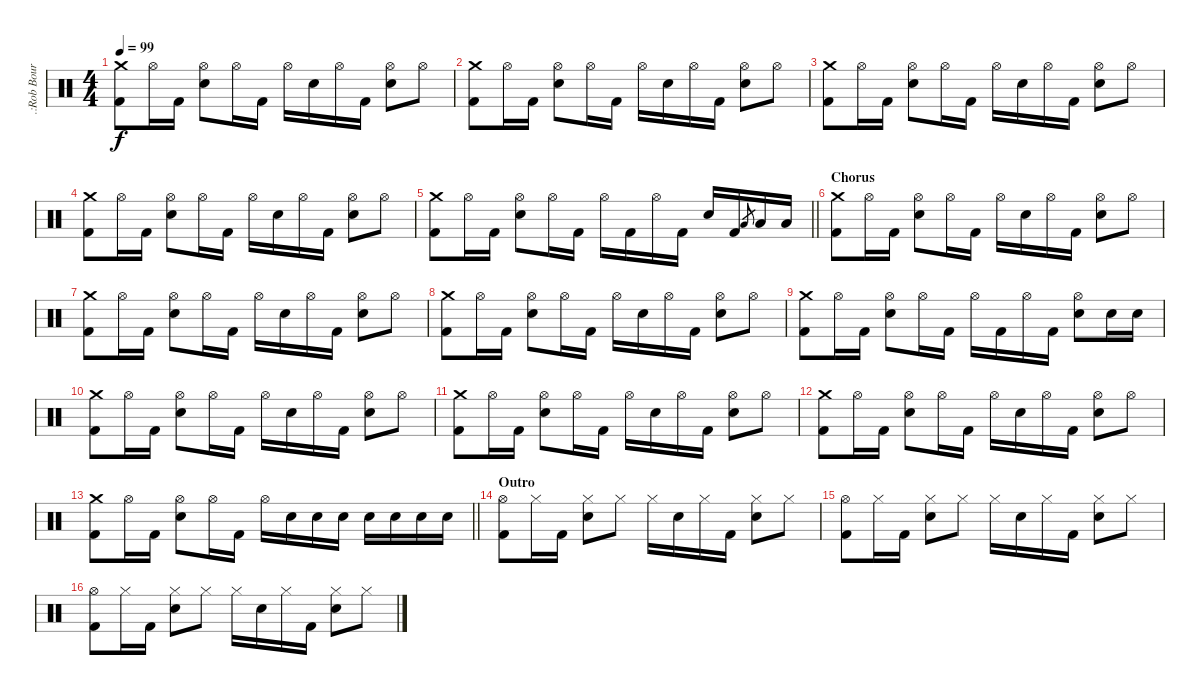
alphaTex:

\track (".:Rob Bourdon - Drums:." ".:Rob Bour") {instrument percussion}
\staff {score}
\articulation defaults
\ts (4 4)
\tempo 99
\clef neutral
\ks c
("Crash medium (hit)" "Kick (hit) 2").8{dy f} "Hi-Hat (open)".16 "Kick (hit) 2".16 ("Hi-Hat (open)" "Electric Snare (hit)").8 "Hi-Hat (open)".16 "Kick (hit) 2".16 "Hi-Hat (open)".16 "Electric Snare (hit)".16 "Hi-Hat (open)".16 "Kick (hit) 2".16 ("Hi-Hat (open)" "Electric Snare (hit)").8 "Hi-Hat (open)".8 |
("Crash medium (hit)" "Kick (hit) 2").8 "Hi-Hat (open)".16 "Kick (hit) 2".16 ("Hi-Hat (open)" "Electric Snare (hit)").8 "Hi-Hat (open)".16 "Kick (hit) 2".16 "Hi-Hat (open)".16 "Electric Snare (hit)".16 "Hi-Hat (open)".16 "Kick (hit) 2".16 ("Hi-Hat (open)" "Electric Snare (hit)").8 "Hi-Hat (open)".8 |
("Crash medium (hit)" "Kick (hit) 2").8 "Hi-Hat (open)".16 "Kick (hit) 2".16 ("Hi-Hat (open)" "Electric Snare (hit)").8 "Hi-Hat (open)".16 "Kick (hit) 2".16 "Hi-Hat (open)".16 "Electric Snare (hit)".16 "Hi-Hat (open)".16 "Kick (hit) 2".16 ("Hi-Hat (open)" "Electric Snare (hit)").8 "Hi-Hat (open)".8 |
("Crash medium (hit)" "Kick (hit) 2").8 "Hi-Hat (open)".16 "Kick (hit) 2".16 ("Hi-Hat (open)" "Electric Snare (hit)").8 "Hi-Hat (open)".16 "Kick (hit) 2".16 "Hi-Hat (open)".16 "Electric Snare (hit)".16 "Hi-Hat (open)".16 "Kick (hit) 2".16 ("Hi-Hat (open)" "Electric Snare (hit)").8 "Hi-Hat (open)".8 |
\barLineRight lightlight
("Crash medium (hit)" "Kick (hit) 2").8 "Hi-Hat (open)".16 "Kick (hit) 2".16 ("Hi-Hat (open)" "Electric Snare (hit)").8 "Hi-Hat (open)".16 "Kick (hit) 2".16 "Hi-Hat (open)".16 "Kick (hit) 2".16 "Hi-Hat (open)".16 "Kick (hit) 2".16 "Electric Snare (hit)".16 "Kick (hit) 2".16 "Low Floor Tom (hit)".8{gr} "Low Floor Tom (hit)".16 "Low Floor Tom (hit)".16 |
\section ("" "Chorus")
("Crash medium (hit)" "Kick (hit) 2").8 "Hi-Hat (open)".16 "Kick (hit) 2".16 ("Hi-Hat (open)" "Electric Snare (hit)").8 "Hi-Hat (open)".16 "Kick (hit) 2".16 "Hi-Hat (open)".16 "Electric Snare (hit)".16 "Hi-Hat (open)".16 "Kick (hit) 2".16 ("Hi-Hat (open)" "Electric Snare (hit)").8 "Hi-Hat (open)".8 |
("Crash medium (hit)" "Kick (hit) 2").8 "Hi-Hat (open)".16 "Kick (hit) 2".16 ("Hi-Hat (open)" "Electric Snare (hit)").8 "Hi-Hat (open)".16 "Kick (hit) 2".16 "Hi-Hat (open)".16 "Electric Snare (hit)".16 "Hi-Hat (open)".16 "Kick (hit) 2".16 ("Hi-Hat (open)" "Electric Snare (hit)").8 "Hi-Hat (open)".8 |
("Crash medium (hit)" "Kick (hit) 2").8 "Hi-Hat (open)".16 "Kick (hit) 2".16 ("Hi-Hat (open)" "Electric Snare (hit)").8 "Hi-Hat (open)".16 "Kick (hit) 2".16 "Hi-Hat (open)".16 "Electric Snare (hit)".16 "Hi-Hat (open)".16 "Kick (hit) 2".16 ("Hi-Hat (open)" "Electric Snare (hit)").8 "Hi-Hat (open)".8 |
("Crash medium (hit)" "Kick (hit) 2").8 "Hi-Hat (open)".16 "Kick (hit) 2".16 ("Hi-Hat (open)" "Electric Snare (hit)").8 "Hi-Hat (open)".16 "Kick (hit) 2".16 "Hi-Hat (open)".16 "Kick (hit) 2".16 "Hi-Hat (open)".16 "Kick (hit) 2".16 ("Hi-Hat (open)" "Electric Snare (hit)").8 "Electric Snare (hit)".16 "Electric Snare (hit)".16 |
("Crash medium (hit)" "Kick (hit) 2").8 "Hi-Hat (open)".16 "Kick (hit) 2".16 ("Hi-Hat (open)" "Electric Snare (hit)").8 "Hi-Hat (open)".16 "Kick (hit) 2".16 "Hi-Hat (open)".16 "Electric Snare (hit)".16 "Hi-Hat (open)".16 "Kick (hit) 2".16 ("Hi-Hat (open)" "Electric Snare (hit)").8 "Hi-Hat (open)".8 |
("Crash medium (hit)" "Kick (hit) 2").8 "Hi-Hat (open)".16 "Kick (hit) 2".16 ("Hi-Hat (open)" "Electric Snare (hit)").8 "Hi-Hat (open)".16 "Kick (hit) 2".16 "Hi-Hat (open)".16 "Electric Snare (hit)".16 "Hi-Hat (open)".16 "Kick (hit) 2".16 ("Hi-Hat (open)" "Electric Snare (hit)").8 "Hi-Hat (open)".8 |
("Crash medium (hit)" "Kick (hit) 2").8 "Hi-Hat (open)".16 "Kick (hit) 2".16 ("Hi-Hat (open)" "Electric Snare (hit)").8 "Hi-Hat (open)".16 "Kick (hit) 2".16 "Hi-Hat (open)".16 "Electric Snare (hit)".16 "Hi-Hat (open)".16 "Kick (hit) 2".16 ("Hi-Hat (open)" "Electric Snare (hit)").8 "Hi-Hat (open)".8 |
\barLineRight lightlight
("Crash medium (hit)" "Kick (hit) 2").8 "Hi-Hat (open)".16 "Kick (hit) 2".16 ("Hi-Hat (open)" "Electric Snare (hit)").8 "Hi-Hat (open)".16 "Kick (hit) 2".16 "Hi-Hat (open)".16 "Electric Snare (hit)".16 "Electric Snare (hit)".16 "Electric Snare (hit)".16 "Electric Snare (hit)".16 "Electric Snare (hit)".16 "Electric Snare (hit)".16 "Electric Snare (hit)".16 |
\section ("" "Outro")
("Hi-Hat (open)" "Kick (hit) 2").8{volume 0} "Hi-Hat (closed)".16 "Kick (hit) 2".16 ("Hi-Hat (closed)" "Electric Snare (hit)").8 "Hi-Hat (closed)".8 "Hi-Hat (closed)".16 "Electric Snare (hit)".16 "Hi-Hat (closed)".16 "Kick (hit) 2".16 ("Hi-Hat (closed)" "Electric Snare (hit)").8 "Hi-Hat (closed)".8 |
("Hi-Hat (open)" "Kick (hit) 2").8 "Hi-Hat (closed)".16 "Kick (hit) 2".16 ("Hi-Hat (closed)" "Electric Snare (hit)").8 "Hi-Hat (closed)".8 "Hi-Hat (closed)".16 "Electric Snare (hit)".16 "Hi-Hat (closed)".16 "Kick (hit) 2".16 ("Hi-Hat (closed)" "Electric Snare (hit)").8 "Hi-Hat (closed)".8 |
("Hi-Hat (open)" "Kick (hit) 2").8 "Hi-Hat (closed)".16 "Kick (hit) 2".16 ("Hi-Hat (closed)" "Electric Snare (hit)").8 "Hi-Hat (closed)".8 "Hi-Hat (closed)".16 "Electric Snare (hit)".16 "Hi-Hat (closed)".16 "Kick (hit) 2".16 ("Hi-Hat (closed)" "Electric Snare (hit)").8 "Hi-Hat (closed)".8
